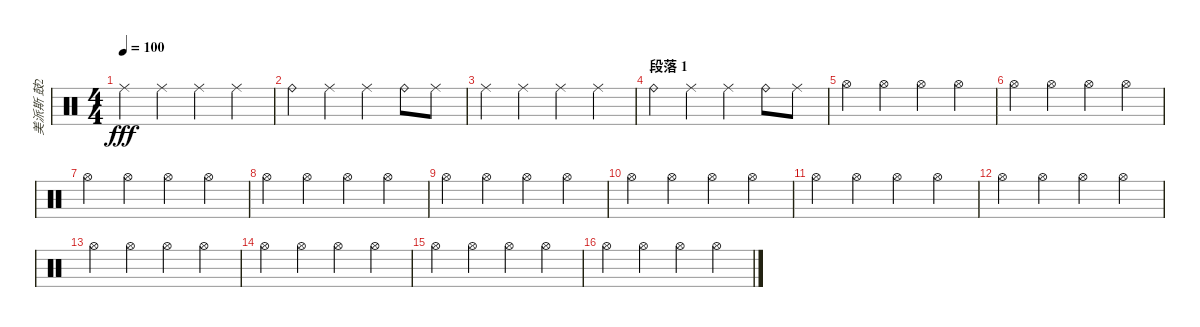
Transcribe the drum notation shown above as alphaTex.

\track ("美派斯 鼓2" "美派斯 鼓2") {instrument percussion}
\staff {score}
\articulation defaults
\ts (4 4)
\tempo 100
\clef neutral
\ks c "Ride (middle)".4{dy fff} "Ride (middle)".4 "Ride (middle)".4 "Ride (middle)".4
|
"Ride (bell)".4 "Ride (middle)".4 "Ride (middle)".4 "Ride (bell)".8 "Ride (middle)".8 |
"Ride (middle)".4 "Ride (middle)".4 "Ride (middle)".4 "Ride (middle)".4 |
\section ("" "段落 1")
"Ride (bell)".4 "Ride (middle)".4 "Ride (middle)".4 "Ride (bell)".8 "Ride (middle)".8 |
"Hi-Hat (open)".4 "Hi-Hat (open)".4 "Hi-Hat (open)".4 "Hi-Hat (open)".4 |
"Hi-Hat (open)".4 "Hi-Hat (open)".4 "Hi-Hat (open)".4 "Hi-Hat (open)".4 |
"Hi-Hat (open)".4 "Hi-Hat (open)".4 "Hi-Hat (open)".4 "Hi-Hat (open)".4 |
"Hi-Hat (open)".4 "Hi-Hat (open)".4 "Hi-Hat (open)".4 "Hi-Hat (open)".4 |
"Hi-Hat (open)".4 "Hi-Hat (open)".4 "Hi-Hat (open)".4 "Hi-Hat (open)".4 |
"Hi-Hat (open)".4 "Hi-Hat (open)".4 "Hi-Hat (open)".4 "Hi-Hat (open)".4 |
"Hi-Hat (open)".4 "Hi-Hat (open)".4 "Hi-Hat (open)".4 "Hi-Hat (open)".4 |
"Hi-Hat (open)".4 "Hi-Hat (open)".4 "Hi-Hat (open)".4 "Hi-Hat (open)".4 |
"Hi-Hat (open)".4 "Hi-Hat (open)".4 "Hi-Hat (open)".4 "Hi-Hat (open)".4 |
"Hi-Hat (open)".4 "Hi-Hat (open)".4 "Hi-Hat (open)".4 "Hi-Hat (open)".4 |
"Hi-Hat (open)".4 "Hi-Hat (open)".4 "Hi-Hat (open)".4 "Hi-Hat (open)".4 |
"Hi-Hat (open)".4 "Hi-Hat (open)".4 "Hi-Hat (open)".4 "Hi-Hat (open)".4
